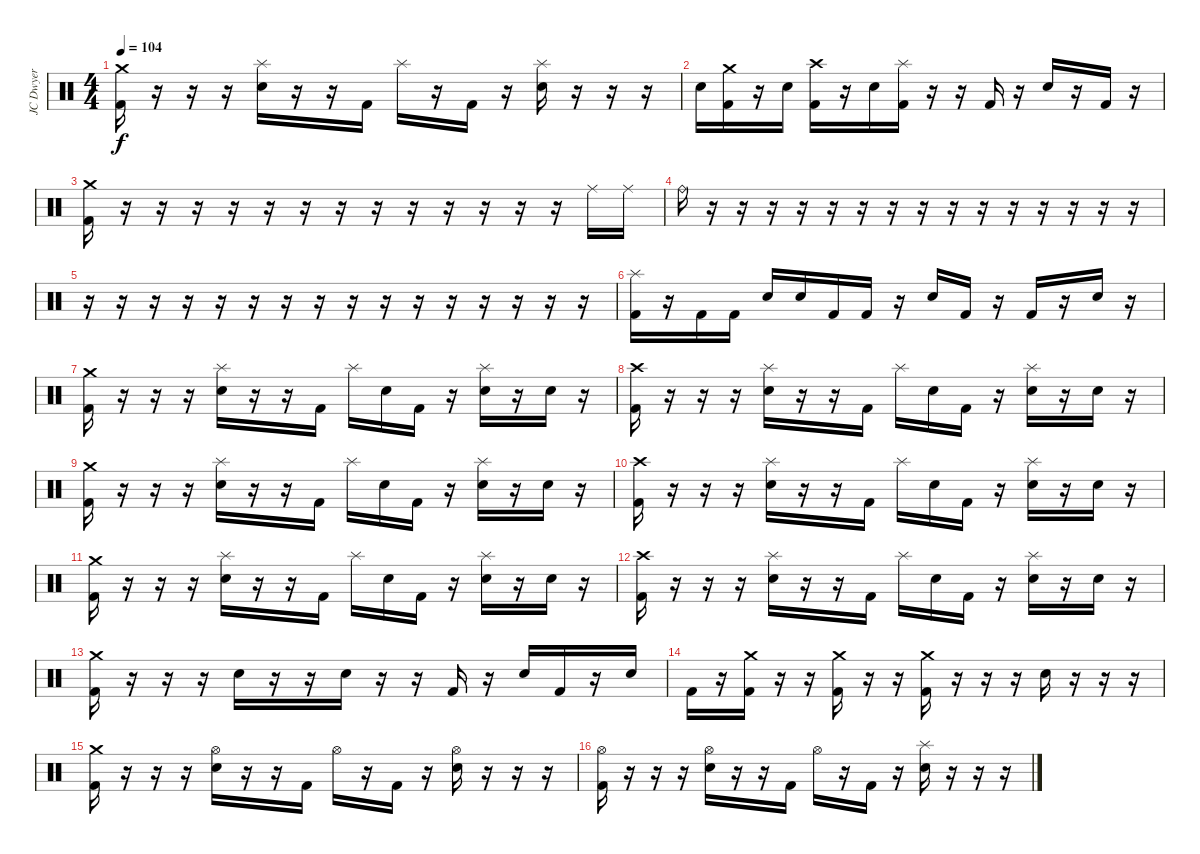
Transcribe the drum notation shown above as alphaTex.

\track ("JC Dwyer" "JC Dwyer") {instrument percussion}
\staff {score}
\articulation defaults
\ts (4 4)
\tempo 104
\clef neutral
\ks c
("Crash medium (hit)" "Kick (hit) 2").16{dy f} r.16 r.16 r.16 ("Splash (hit)" "Electric Snare (hit)").16 r.16 r.16 "Kick (hit) 2".16 "Splash (hit)".16 r.16 "Kick (hit) 2".16 r.16 ("Splash (hit)" "Electric Snare (hit)").16 r.16 r.16 r.16 |
"Electric Snare (hit)".16 ("Crash medium (hit)" "Kick (hit) 2").16 r.16 "Electric Snare (hit)".16 ("Crash high (hit)" "Kick (hit) 2").16 r.16 "Electric Snare (hit)".16 ("Splash (hit)" "Kick (hit) 2").16 r.16 r.16 "Kick (hit) 2".16 r.16 "Electric Snare (hit)".16 r.16 "Kick (hit) 2".16 r.16 |
("Crash medium (hit)" "Kick (hit) 2").16 r.16 r.16 r.16 r.16 r.16 r.16 r.16 r.16 r.16 r.16 r.16 r.16 r.16 "Ride (middle)".16 "Ride (middle)".16 |
"Ride (bell)".16 r.16 r.16 r.16 r.16 r.16 r.16 r.16 r.16 r.16 r.16 r.16 r.16 r.16 r.16 r.16 |
r.16 r.16 r.16 r.16 r.16 r.16 r.16 r.16 r.16 r.16 r.16 r.16 r.16 r.16 r.16 r.16 |
("Splash (hit)" "Kick (hit) 2").16 r.16 "Kick (hit) 2".16 "Kick (hit) 2".16 "Electric Snare (hit)".16 "Electric Snare (hit)".16 "Kick (hit) 2".16 "Kick (hit) 2".16 r.16 "Electric Snare (hit)".16 "Kick (hit) 2".16 r.16 "Kick (hit) 2".16 r.16 "Electric Snare (hit)".16 r.16 |
("Crash medium (hit)" "Kick (hit) 2").16 r.16 r.16 r.16 ("Splash (hit)" "Electric Snare (hit)").16 r.16 r.16 "Kick (hit) 2".16 "Splash (hit)".16 "Electric Snare (hit)".16 "Kick (hit) 2".16 r.16 ("Splash (hit)" "Electric Snare (hit)").16 r.16 "Electric Snare (hit)".16 r.16 |
("Crash high (hit)" "Kick (hit) 2").16 r.16 r.16 r.16 ("Splash (hit)" "Electric Snare (hit)").16 r.16 r.16 "Kick (hit) 2".16 "Splash (hit)".16 "Electric Snare (hit)".16 "Kick (hit) 2".16 r.16 ("Splash (hit)" "Electric Snare (hit)").16 r.16 "Electric Snare (hit)".16 r.16 |
("Crash medium (hit)" "Kick (hit) 2").16 r.16 r.16 r.16 ("Splash (hit)" "Electric Snare (hit)").16 r.16 r.16 "Kick (hit) 2".16 "Splash (hit)".16 "Electric Snare (hit)".16 "Kick (hit) 2".16 r.16 ("Splash (hit)" "Electric Snare (hit)").16 r.16 "Electric Snare (hit)".16 r.16 |
("Crash high (hit)" "Kick (hit) 2").16 r.16 r.16 r.16 ("Splash (hit)" "Electric Snare (hit)").16 r.16 r.16 "Kick (hit) 2".16 "Splash (hit)".16 "Electric Snare (hit)".16 "Kick (hit) 2".16 r.16 ("Splash (hit)" "Electric Snare (hit)").16 r.16 "Electric Snare (hit)".16 r.16 |
("Crash medium (hit)" "Kick (hit) 2").16 r.16 r.16 r.16 ("Splash (hit)" "Electric Snare (hit)").16 r.16 r.16 "Kick (hit) 2".16 "Splash (hit)".16 "Electric Snare (hit)".16 "Kick (hit) 2".16 r.16 ("Splash (hit)" "Electric Snare (hit)").16 r.16 "Electric Snare (hit)".16 r.16 |
("Crash high (hit)" "Kick (hit) 2").16 r.16 r.16 r.16 ("Splash (hit)" "Electric Snare (hit)").16 r.16 r.16 "Kick (hit) 2".16 "Splash (hit)".16 "Electric Snare (hit)".16 "Kick (hit) 2".16 r.16 ("Splash (hit)" "Electric Snare (hit)").16 r.16 "Electric Snare (hit)".16 r.16 |
("Crash medium (hit)" "Kick (hit) 2").16 r.16 r.16 r.16 "Electric Snare (hit)".16 r.16 r.16 "Electric Snare (hit)".16 r.16 r.16 "Kick (hit) 2".16 r.16 "Electric Snare (hit)".16 "Kick (hit) 2".16 r.16 "Electric Snare (hit)".16 |
"Kick (hit) 2".16 r.16 ("Crash medium (hit)" "Kick (hit) 2").16 r.16 r.16 ("Crash medium (hit)" "Kick (hit) 2").16 r.16 r.16 ("Crash medium (hit)" "Kick (hit) 2").16 r.16 r.16 r.16 "Electric Snare (hit)".16 r.16 r.16 r.16 |
("Crash medium (hit)" "Kick (hit) 2").16 r.16 r.16 r.16 ("Hi-Hat (open)" "Electric Snare (hit)").16 r.16 r.16 "Kick (hit) 2".16 "Hi-Hat (open)".16 r.16 "Kick (hit) 2".16 r.16 ("Hi-Hat (open)" "Electric Snare (hit)").16 r.16 r.16 r.16 |
("Hi-Hat (open)" "Kick (hit) 2").16 r.16 r.16 r.16 ("Hi-Hat (open)" "Electric Snare (hit)").16 r.16 r.16 "Kick (hit) 2".16 "Hi-Hat (open)".16 r.16 "Kick (hit) 2".16 r.16 ("Splash (hit)" "Electric Snare (hit)").16 r.16 r.16 r.16
